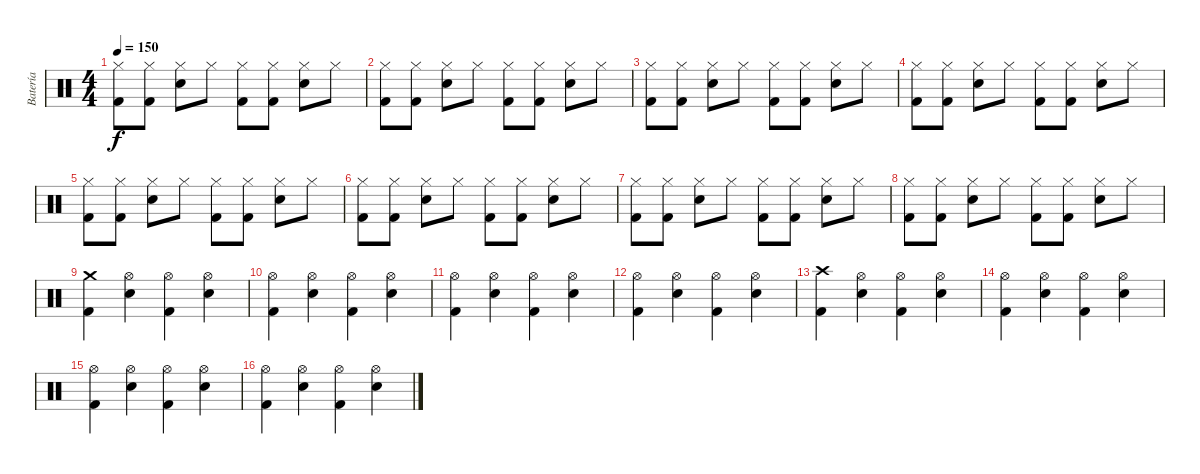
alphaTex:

\track ("Batería" "Batería") {instrument percussion}
\staff {score}
\articulation defaults
\ts (4 4)
\tempo 150
\clef neutral
\ks c
("Hi-Hat (closed)" "Kick (hit) 2").8{dy f} ("Hi-Hat (closed)" "Kick (hit) 2").8 ("Hi-Hat (closed)" "Electric Snare (hit)").8 "Hi-Hat (closed)".8 ("Hi-Hat (closed)" "Kick (hit) 2").8 ("Hi-Hat (closed)" "Kick (hit) 2").8 ("Hi-Hat (closed)" "Electric Snare (hit)").8 "Hi-Hat (closed)".8 |
("Hi-Hat (closed)" "Kick (hit) 2").8 ("Hi-Hat (closed)" "Kick (hit) 2").8 ("Hi-Hat (closed)" "Electric Snare (hit)").8 "Hi-Hat (closed)".8 ("Hi-Hat (closed)" "Kick (hit) 2").8 ("Hi-Hat (closed)" "Kick (hit) 2").8 ("Hi-Hat (closed)" "Electric Snare (hit)").8 "Hi-Hat (closed)".8 |
("Hi-Hat (closed)" "Kick (hit) 2").8 ("Hi-Hat (closed)" "Kick (hit) 2").8 ("Hi-Hat (closed)" "Electric Snare (hit)").8 "Hi-Hat (closed)".8 ("Hi-Hat (closed)" "Kick (hit) 2").8 ("Hi-Hat (closed)" "Kick (hit) 2").8 ("Hi-Hat (closed)" "Electric Snare (hit)").8 "Hi-Hat (closed)".8 |
("Hi-Hat (closed)" "Kick (hit) 2").8 ("Hi-Hat (closed)" "Kick (hit) 2").8 ("Hi-Hat (closed)" "Electric Snare (hit)").8 "Hi-Hat (closed)".8 ("Hi-Hat (closed)" "Kick (hit) 2").8 ("Hi-Hat (closed)" "Kick (hit) 2").8 ("Hi-Hat (closed)" "Electric Snare (hit)").8 "Hi-Hat (closed)".8 |
("Hi-Hat (closed)" "Kick (hit) 2").8 ("Hi-Hat (closed)" "Kick (hit) 2").8 ("Hi-Hat (closed)" "Electric Snare (hit)").8 "Hi-Hat (closed)".8 ("Hi-Hat (closed)" "Kick (hit) 2").8 ("Hi-Hat (closed)" "Kick (hit) 2").8 ("Hi-Hat (closed)" "Electric Snare (hit)").8 "Hi-Hat (closed)".8 |
("Hi-Hat (closed)" "Kick (hit) 2").8 ("Hi-Hat (closed)" "Kick (hit) 2").8 ("Hi-Hat (closed)" "Electric Snare (hit)").8 "Hi-Hat (closed)".8 ("Hi-Hat (closed)" "Kick (hit) 2").8 ("Hi-Hat (closed)" "Kick (hit) 2").8 ("Hi-Hat (closed)" "Electric Snare (hit)").8 "Hi-Hat (closed)".8 |
("Hi-Hat (closed)" "Kick (hit) 2").8 ("Hi-Hat (closed)" "Kick (hit) 2").8 ("Hi-Hat (closed)" "Electric Snare (hit)").8 "Hi-Hat (closed)".8 ("Hi-Hat (closed)" "Kick (hit) 2").8 ("Hi-Hat (closed)" "Kick (hit) 2").8 ("Hi-Hat (closed)" "Electric Snare (hit)").8 "Hi-Hat (closed)".8 |
("Hi-Hat (closed)" "Kick (hit) 2").8 ("Hi-Hat (closed)" "Kick (hit) 2").8 ("Hi-Hat (closed)" "Electric Snare (hit)").8 "Hi-Hat (closed)".8 ("Hi-Hat (closed)" "Kick (hit) 2").8 ("Hi-Hat (closed)" "Kick (hit) 2").8 ("Hi-Hat (closed)" "Electric Snare (hit)").8 "Hi-Hat (closed)".8 |
("Crash medium (hit)" "Kick (hit) 2").4 ("Hi-Hat (open)" "Electric Snare (hit)").4 ("Hi-Hat (open)" "Kick (hit) 2").4 ("Hi-Hat (open)" "Electric Snare (hit)").4 |
("Hi-Hat (open)" "Kick (hit) 2").4 ("Hi-Hat (open)" "Electric Snare (hit)").4 ("Hi-Hat (open)" "Kick (hit) 2").4 ("Hi-Hat (open)" "Electric Snare (hit)").4 |
("Hi-Hat (open)" "Kick (hit) 2").4 ("Hi-Hat (open)" "Electric Snare (hit)").4 ("Hi-Hat (open)" "Kick (hit) 2").4 ("Hi-Hat (open)" "Electric Snare (hit)").4 |
("Hi-Hat (open)" "Kick (hit) 2").4 ("Hi-Hat (open)" "Electric Snare (hit)").4 ("Hi-Hat (open)" "Kick (hit) 2").4 ("Hi-Hat (open)" "Electric Snare (hit)").4 |
("Crash high (hit)" "Kick (hit) 2").4 ("Hi-Hat (open)" "Electric Snare (hit)").4 ("Hi-Hat (open)" "Kick (hit) 2").4 ("Hi-Hat (open)" "Electric Snare (hit)").4 |
("Hi-Hat (open)" "Kick (hit) 2").4 ("Hi-Hat (open)" "Electric Snare (hit)").4 ("Hi-Hat (open)" "Kick (hit) 2").4 ("Hi-Hat (open)" "Electric Snare (hit)").4 |
("Hi-Hat (open)" "Kick (hit) 2").4 ("Hi-Hat (open)" "Electric Snare (hit)").4 ("Hi-Hat (open)" "Kick (hit) 2").4 ("Hi-Hat (open)" "Electric Snare (hit)").4 |
("Hi-Hat (open)" "Kick (hit) 2").4 ("Hi-Hat (open)" "Electric Snare (hit)").4 ("Hi-Hat (open)" "Kick (hit) 2").4 ("Hi-Hat (open)" "Electric Snare (hit)").4
